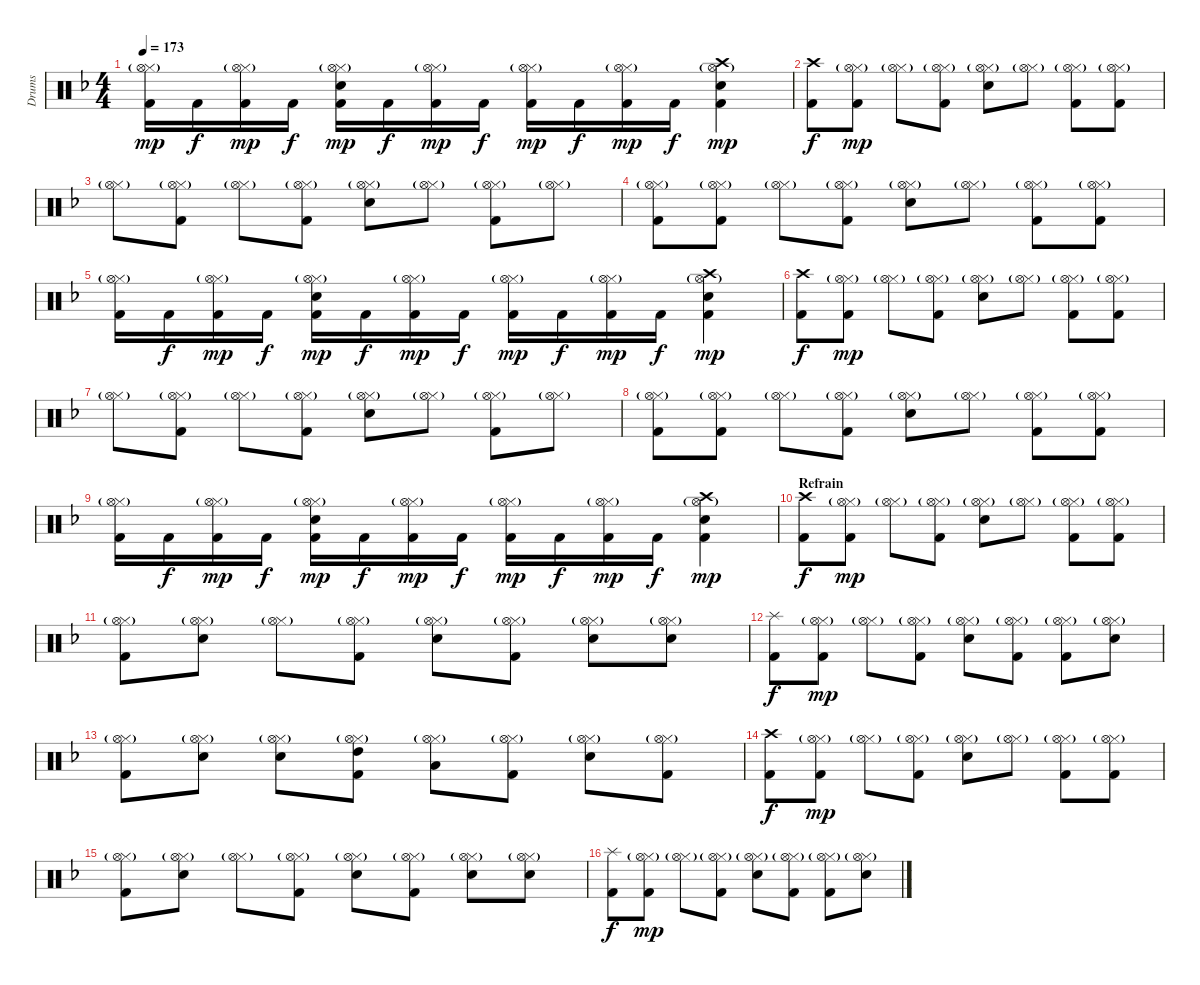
\track ("Drums" "Drums") {instrument percussion}
\staff {score}
\articulation defaults
\ts (4 4)
\tempo 173
\clef neutral
\ks dminor
("Hi-Hat (closed)"{g} "Hi-Hat (open)"{g} "Kick (hit) 2").16{dy mp} "Kick (hit) 2".16{dy f} ("Hi-Hat (closed)"{g} "Hi-Hat (open)"{g} "Kick (hit) 2").16{dy mp} "Kick (hit) 2".16{dy f} ("Hi-Hat (closed)"{g} "Hi-Hat (open)"{g} "Snare (hit) 2" "Kick (hit) 2").16{dy mp} "Kick (hit) 2".16{dy f} ("Hi-Hat (closed)"{g} "Hi-Hat (open)"{g} "Kick (hit) 2").16{dy mp} "Kick (hit) 2".16{dy f} ("Hi-Hat (closed)"{g} "Hi-Hat (open)"{g} "Kick (hit) 2").16{dy mp} "Kick (hit) 2".16{dy f} ("Hi-Hat (closed)"{g} "Hi-Hat (open)"{g} "Kick (hit) 2").16{dy mp} "Kick (hit) 2".16{dy f} ("Crash high (hit)" "Hi-Hat (open)"{g} "Snare (hit) 2" "Kick (hit) 2").4{dy mp} |
("Crash high (hit)" "Kick (hit) 2").8{dy f} ("Hi-Hat (closed)"{g} "Hi-Hat (open)"{g} "Kick (hit) 2").8{dy mp} ("Hi-Hat (closed)"{g} "Hi-Hat (open)"{g}).8 ("Hi-Hat (closed)"{g} "Hi-Hat (open)"{g} "Kick (hit) 2").8 ("Hi-Hat (closed)"{g} "Hi-Hat (open)"{g} "Snare (hit) 2").8 ("Hi-Hat (closed)"{g} "Hi-Hat (open)"{g}).8 ("Hi-Hat (closed)"{g} "Hi-Hat (open)"{g} "Kick (hit) 2").8 ("Hi-Hat (closed)"{g} "Hi-Hat (open)"{g} "Kick (hit) 2").8 |
("Hi-Hat (closed)"{g} "Hi-Hat (open)"{g}).8 ("Hi-Hat (closed)"{g} "Hi-Hat (open)"{g} "Kick (hit) 2").8 ("Hi-Hat (closed)"{g} "Hi-Hat (open)"{g}).8 ("Hi-Hat (closed)"{g} "Hi-Hat (open)"{g} "Kick (hit) 2").8 ("Hi-Hat (closed)"{g} "Hi-Hat (open)"{g} "Snare (hit) 2").8 ("Hi-Hat (closed)"{g} "Hi-Hat (open)"{g}).8 ("Hi-Hat (closed)"{g} "Hi-Hat (open)"{g} "Kick (hit) 2").8 ("Hi-Hat (closed)"{g} "Hi-Hat (open)"{g}).8 |
("Hi-Hat (closed)"{g} "Hi-Hat (open)"{g} "Kick (hit) 2").8 ("Hi-Hat (closed)"{g} "Hi-Hat (open)"{g} "Kick (hit) 2").8 ("Hi-Hat (closed)"{g} "Hi-Hat (open)"{g}).8 ("Hi-Hat (closed)"{g} "Hi-Hat (open)"{g} "Kick (hit) 2").8 ("Hi-Hat (closed)"{g} "Hi-Hat (open)"{g} "Snare (hit) 2").8 ("Hi-Hat (closed)"{g} "Hi-Hat (open)"{g}).8 ("Hi-Hat (closed)"{g} "Hi-Hat (open)"{g} "Kick (hit) 2").8 ("Hi-Hat (closed)"{g} "Hi-Hat (open)"{g} "Kick (hit) 2").8 |
("Hi-Hat (closed)"{g} "Hi-Hat (open)"{g} "Kick (hit) 2").16 "Kick (hit) 2".16{dy f} ("Hi-Hat (closed)"{g} "Hi-Hat (open)"{g} "Kick (hit) 2").16{dy mp} "Kick (hit) 2".16{dy f} ("Hi-Hat (closed)"{g} "Hi-Hat (open)"{g} "Snare (hit) 2" "Kick (hit) 2").16{dy mp} "Kick (hit) 2".16{dy f} ("Hi-Hat (closed)"{g} "Hi-Hat (open)"{g} "Kick (hit) 2").16{dy mp} "Kick (hit) 2".16{dy f} ("Hi-Hat (closed)"{g} "Hi-Hat (open)"{g} "Kick (hit) 2").16{dy mp} "Kick (hit) 2".16{dy f} ("Hi-Hat (closed)"{g} "Hi-Hat (open)"{g} "Kick (hit) 2").16{dy mp} "Kick (hit) 2".16{dy f} ("Crash high (hit)" "Hi-Hat (open)"{g} "Snare (hit) 2" "Kick (hit) 2").4{dy mp} |
("Crash high (hit)" "Kick (hit) 2").8{dy f} ("Hi-Hat (closed)"{g} "Hi-Hat (open)"{g} "Kick (hit) 2").8{dy mp} ("Hi-Hat (closed)"{g} "Hi-Hat (open)"{g}).8 ("Hi-Hat (closed)"{g} "Hi-Hat (open)"{g} "Kick (hit) 2").8 ("Hi-Hat (closed)"{g} "Hi-Hat (open)"{g} "Snare (hit) 2").8 ("Hi-Hat (closed)"{g} "Hi-Hat (open)"{g}).8 ("Hi-Hat (closed)"{g} "Hi-Hat (open)"{g} "Kick (hit) 2").8 ("Hi-Hat (closed)"{g} "Hi-Hat (open)"{g} "Kick (hit) 2").8 |
("Hi-Hat (closed)"{g} "Hi-Hat (open)"{g}).8 ("Hi-Hat (closed)"{g} "Hi-Hat (open)"{g} "Kick (hit) 2").8 ("Hi-Hat (closed)"{g} "Hi-Hat (open)"{g}).8 ("Hi-Hat (closed)"{g} "Hi-Hat (open)"{g} "Kick (hit) 2").8 ("Hi-Hat (closed)"{g} "Hi-Hat (open)"{g} "Snare (hit) 2").8 ("Hi-Hat (closed)"{g} "Hi-Hat (open)"{g}).8 ("Hi-Hat (closed)"{g} "Hi-Hat (open)"{g} "Kick (hit) 2").8 ("Hi-Hat (closed)"{g} "Hi-Hat (open)"{g}).8 |
("Hi-Hat (closed)"{g} "Hi-Hat (open)"{g} "Kick (hit) 2").8 ("Hi-Hat (closed)"{g} "Hi-Hat (open)"{g} "Kick (hit) 2").8 ("Hi-Hat (closed)"{g} "Hi-Hat (open)"{g}).8 ("Hi-Hat (closed)"{g} "Hi-Hat (open)"{g} "Kick (hit) 2").8 ("Hi-Hat (closed)"{g} "Hi-Hat (open)"{g} "Snare (hit) 2").8 ("Hi-Hat (closed)"{g} "Hi-Hat (open)"{g}).8 ("Hi-Hat (closed)"{g} "Hi-Hat (open)"{g} "Kick (hit) 2").8 ("Hi-Hat (closed)"{g} "Hi-Hat (open)"{g} "Kick (hit) 2").8 |
("Hi-Hat (closed)"{g} "Hi-Hat (open)"{g} "Kick (hit) 2").16 "Kick (hit) 2".16{dy f} ("Hi-Hat (closed)"{g} "Hi-Hat (open)"{g} "Kick (hit) 2").16{dy mp} "Kick (hit) 2".16{dy f} ("Hi-Hat (closed)"{g} "Hi-Hat (open)"{g} "Snare (hit) 2" "Kick (hit) 2").16{dy mp} "Kick (hit) 2".16{dy f} ("Hi-Hat (closed)"{g} "Hi-Hat (open)"{g} "Kick (hit) 2").16{dy mp} "Kick (hit) 2".16{dy f} ("Hi-Hat (closed)"{g} "Hi-Hat (open)"{g} "Kick (hit) 2").16{dy mp} "Kick (hit) 2".16{dy f} ("Hi-Hat (closed)"{g} "Hi-Hat (open)"{g} "Kick (hit) 2").16{dy mp} "Kick (hit) 2".16{dy f} ("Crash high (hit)" "Hi-Hat (open)"{g} "Snare (hit) 2" "Kick (hit) 2").4{dy mp} |
\section ("" "Refrain")
("Crash high (hit)" "Kick (hit) 2").8{dy f} ("Hi-Hat (closed)"{g} "Hi-Hat (open)"{g} "Kick (hit) 2").8{dy mp} ("Hi-Hat (closed)"{g} "Hi-Hat (open)"{g}).8 ("Hi-Hat (closed)"{g} "Hi-Hat (open)"{g} "Kick (hit) 2").8 ("Hi-Hat (closed)"{g} "Hi-Hat (open)"{g} "Snare (hit) 2").8 ("Hi-Hat (closed)"{g} "Hi-Hat (open)"{g}).8 ("Hi-Hat (closed)"{g} "Hi-Hat (open)"{g} "Kick (hit) 2").8 ("Hi-Hat (closed)"{g} "Hi-Hat (open)"{g} "Kick (hit) 2").8 |
("Hi-Hat (closed)"{g} "Hi-Hat (open)"{g} "Kick (hit) 2").8 ("Hi-Hat (closed)"{g} "Hi-Hat (open)"{g} "Snare (hit) 2").8 ("Hi-Hat (closed)"{g} "Hi-Hat (open)"{g}).8 ("Hi-Hat (closed)"{g} "Hi-Hat (open)"{g} "Kick (hit) 2").8 ("Hi-Hat (closed)"{g} "Hi-Hat (open)"{g} "Snare (hit) 2").8 ("Hi-Hat (closed)"{g} "Hi-Hat (open)"{g} "Kick (hit) 2").8 ("Hi-Hat (closed)"{g} "Hi-Hat (open)"{g} "Snare (hit) 2").8 ("Hi-Hat (closed)"{g} "Hi-Hat (open)"{g} "Snare (hit) 2").8 |
("Splash (hit)" "Kick (hit) 2").8{dy f} ("Hi-Hat (closed)"{g} "Hi-Hat (open)"{g} "Kick (hit) 2").8{dy mp} ("Hi-Hat (closed)"{g} "Hi-Hat (open)"{g}).8 ("Hi-Hat (closed)"{g} "Hi-Hat (open)"{g} "Kick (hit) 2").8 ("Hi-Hat (closed)"{g} "Hi-Hat (open)"{g} "Snare (hit) 2").8 ("Hi-Hat (closed)"{g} "Hi-Hat (open)"{g} "Kick (hit) 2").8 ("Hi-Hat (closed)"{g} "Hi-Hat (open)"{g} "Kick (hit) 2").8 ("Hi-Hat (closed)"{g} "Hi-Hat (open)"{g} "Snare (hit) 2").8 |
("Hi-Hat (closed)"{g} "Hi-Hat (open)"{g} "Kick (hit) 2").8 ("Hi-Hat (closed)"{g} "Hi-Hat (open)"{g} "Snare (hit) 2").8 ("Hi-Hat (closed)"{g} "Hi-Hat (open)"{g} "Snare (hit) 2").8 ("Hi-Hat (closed)"{g} "Hi-Hat (open)"{g} "High Tom (hit)" "Kick (hit) 2").8 ("Hi-Hat (closed)"{g} "Hi-Hat (open)"{g} "Low Tom (hit)").8 ("Hi-Hat (closed)"{g} "Hi-Hat (open)"{g} "Kick (hit) 2").8 ("Hi-Hat (closed)"{g} "Hi-Hat (open)"{g} "Snare (hit) 2").8 ("Hi-Hat (closed)"{g} "Hi-Hat (open)"{g} "Kick (hit) 2").8 |
("Crash high (hit)" "Kick (hit) 2").8{dy f} ("Hi-Hat (closed)"{g} "Hi-Hat (open)"{g} "Kick (hit) 2").8{dy mp} ("Hi-Hat (closed)"{g} "Hi-Hat (open)"{g}).8 ("Hi-Hat (closed)"{g} "Hi-Hat (open)"{g} "Kick (hit) 2").8 ("Hi-Hat (closed)"{g} "Hi-Hat (open)"{g} "Snare (hit) 2").8 ("Hi-Hat (closed)"{g} "Hi-Hat (open)"{g}).8 ("Hi-Hat (closed)"{g} "Hi-Hat (open)"{g} "Kick (hit) 2").8 ("Hi-Hat (closed)"{g} "Hi-Hat (open)"{g} "Kick (hit) 2").8 |
("Hi-Hat (closed)"{g} "Hi-Hat (open)"{g} "Kick (hit) 2").8 ("Hi-Hat (closed)"{g} "Hi-Hat (open)"{g} "Snare (hit) 2").8 ("Hi-Hat (closed)"{g} "Hi-Hat (open)"{g}).8 ("Hi-Hat (closed)"{g} "Hi-Hat (open)"{g} "Kick (hit) 2").8 ("Hi-Hat (closed)"{g} "Hi-Hat (open)"{g} "Snare (hit) 2").8 ("Hi-Hat (closed)"{g} "Hi-Hat (open)"{g} "Kick (hit) 2").8 ("Hi-Hat (closed)"{g} "Hi-Hat (open)"{g} "Snare (hit) 2").8 ("Hi-Hat (closed)"{g} "Hi-Hat (open)"{g} "Snare (hit) 2").8 |
("Splash (hit)" "Kick (hit) 2").8{dy f} ("Hi-Hat (closed)"{g} "Hi-Hat (open)"{g} "Kick (hit) 2").8{dy mp} ("Hi-Hat (closed)"{g} "Hi-Hat (open)"{g}).8 ("Hi-Hat (closed)"{g} "Hi-Hat (open)"{g} "Kick (hit) 2").8 ("Hi-Hat (closed)"{g} "Hi-Hat (open)"{g} "Snare (hit) 2").8 ("Hi-Hat (closed)"{g} "Hi-Hat (open)"{g} "Kick (hit) 2").8 ("Hi-Hat (closed)"{g} "Hi-Hat (open)"{g} "Kick (hit) 2").8 ("Hi-Hat (closed)"{g} "Hi-Hat (open)"{g} "Snare (hit) 2").8
